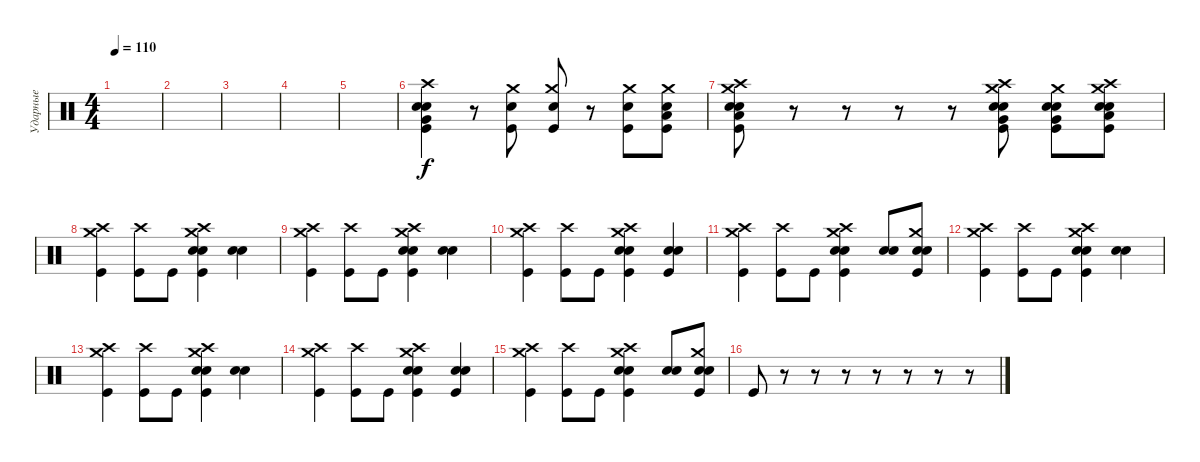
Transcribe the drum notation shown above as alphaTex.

\track ("Ударные" "Ударные") {instrument percussion}
\staff {score}
\articulation defaults
\ts (4 4)
\tempo 110
\clef neutral
\ks c
|
|
|
|
|
("Crash high (hit)" "Electric Snare (hit)" "Electric Snare (hit)" "Very Low Tom (hit)" "Kick (hit)").4 r.8 ("Crash medium (hit)" "Electric Snare (hit)" "Kick (hit)").8 ("Crash medium (hit)" "Snare (hit) 2" "Kick (hit)").8 r.8 ("Crash medium (hit)" "Electric Snare (hit)" "Kick (hit)").8 ("Crash medium (hit)" "Snare (hit) 2" "Low Floor Tom (hit)" "Kick (hit)").8 |
("Crash high (hit)" "Crash medium (hit)" "Snare (hit) 2" "Snare (hit) 2" "Low Floor Tom (hit)" "Kick (hit)").8 r.8 r.8 r.8 r.8 ("Crash medium (hit)" "Crash high (hit)" "Electric Snare (hit)" "Electric Snare (hit)" "Very Low Tom (hit)" "Kick (hit)").8 ("Crash medium (hit)" "Electric Snare (hit)" "Electric Snare (hit)" "Very Low Tom (hit)" "Kick (hit)").8 ("Crash medium (hit)" "Crash high (hit)" "Electric Snare (hit)" "Electric Snare (hit)" "Low Floor Tom (hit)" "Kick (hit)").8 |
("Crash high (hit)" "Crash medium (hit)" "Kick (hit)").4 ("Crash high (hit)" "Kick (hit)").8 "Kick (hit)".8 ("Crash high (hit)" "Crash medium (hit)" "Snare (hit) 2" "Snare (hit) 2" "Kick (hit)").4 ("Snare (hit) 2" "Snare (hit) 2").4 |
("Crash high (hit)" "Crash medium (hit)" "Kick (hit)").4 ("Crash high (hit)" "Kick (hit)").8 "Kick (hit)".8 ("Crash high (hit)" "Crash medium (hit)" "Snare (hit) 2" "Snare (hit) 2" "Kick (hit)").4 ("Snare (hit) 2" "Snare (hit) 2").4 |
("Crash high (hit)" "Crash medium (hit)" "Kick (hit)").4 ("Crash high (hit)" "Kick (hit)").8 "Kick (hit)".8 ("Crash high (hit)" "Crash medium (hit)" "Snare (hit) 2" "Snare (hit) 2" "Kick (hit)").4 ("Snare (hit) 2" "Snare (hit) 2" "Kick (hit)").4 |
("Crash high (hit)" "Crash medium (hit)" "Kick (hit)").4 ("Crash high (hit)" "Kick (hit)").8 "Kick (hit)".8 ("Crash high (hit)" "Crash medium (hit)" "Snare (hit) 2" "Snare (hit) 2" "Kick (hit)").4 ("Snare (hit) 2" "Snare (hit) 2").8 ("Crash medium (hit)" "Snare (hit) 2" "Snare (hit) 2" "Kick (hit)").8 |
("Crash high (hit)" "Crash medium (hit)" "Kick (hit)").4 ("Crash high (hit)" "Kick (hit)").8 "Kick (hit)".8 ("Crash high (hit)" "Crash medium (hit)" "Snare (hit) 2" "Snare (hit) 2" "Kick (hit)").4 ("Snare (hit) 2" "Snare (hit) 2").4 |
("Crash high (hit)" "Crash medium (hit)" "Kick (hit)").4 ("Crash high (hit)" "Kick (hit)").8 "Kick (hit)".8 ("Crash high (hit)" "Crash medium (hit)" "Snare (hit) 2" "Snare (hit) 2" "Kick (hit)").4 ("Snare (hit) 2" "Snare (hit) 2").4 |
("Crash high (hit)" "Crash medium (hit)" "Kick (hit)").4 ("Crash high (hit)" "Kick (hit)").8 "Kick (hit)".8 ("Crash high (hit)" "Crash medium (hit)" "Snare (hit) 2" "Snare (hit) 2" "Kick (hit)").4 ("Snare (hit) 2" "Snare (hit) 2" "Kick (hit)").4 |
("Crash high (hit)" "Crash medium (hit)" "Kick (hit)").4 ("Crash high (hit)" "Kick (hit)").8 "Kick (hit)".8 ("Crash high (hit)" "Crash medium (hit)" "Snare (hit) 2" "Snare (hit) 2" "Kick (hit)").4 ("Snare (hit) 2" "Snare (hit) 2").8 ("Crash medium (hit)" "Snare (hit) 2" "Snare (hit) 2" "Kick (hit)").8 |
"Kick (hit)".8 r.8 r.8 r.8 r.8 r.8 r.8 r.8
